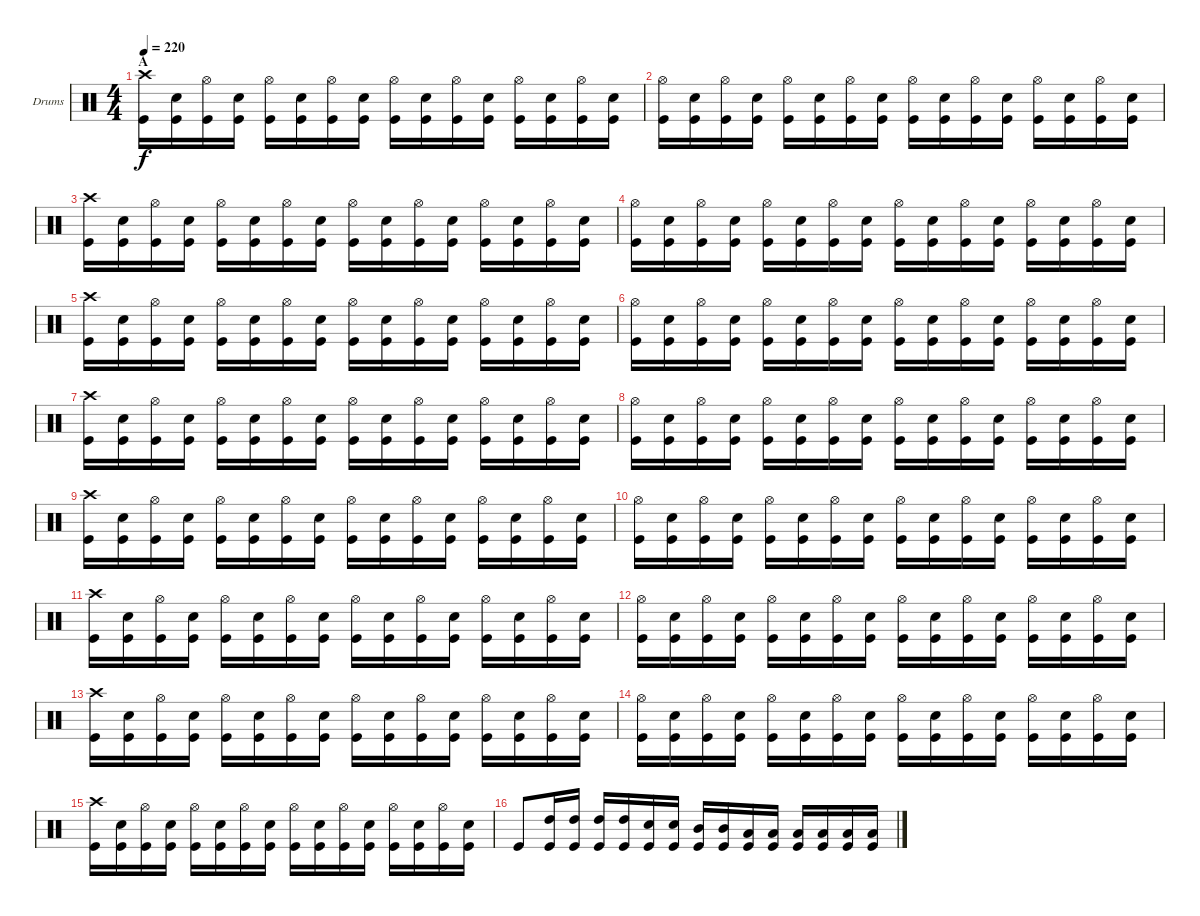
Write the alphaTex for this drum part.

\bracketExtendMode groupsimilarinstruments
\firstSystemTrackNameOrientation horizontal
\otherSystemsTrackNameOrientation horizontal
\track ("Drumkit" "Drums") {instrument percussion}
\staff {score}
\articulation defaults
\ts (4 4)
\section ("" "A")
\tempo 220
\clef neutral
\scale
0.54159
\ks c
("Kick (hit)" "Crash high (hit)").16{dy f} ("Snare (hit) 2" "Kick (hit)").16 ("Kick (hit)" "Hi-Hat (open)").16 ("Snare (hit) 2" "Kick (hit)").16 ("Kick (hit)" "Hi-Hat (open)").16 ("Snare (hit) 2" "Kick (hit)").16 ("Kick (hit)" "Hi-Hat (open)").16 ("Snare (hit) 2" "Kick (hit)").16 ("Kick (hit)" "Hi-Hat (open)").16 ("Snare (hit) 2" "Kick (hit)").16 ("Kick (hit)" "Hi-Hat (open)").16 ("Snare (hit) 2" "Kick (hit)").16 ("Kick (hit)" "Hi-Hat (open)").16 ("Snare (hit) 2" "Kick (hit)").16 ("Kick (hit)" "Hi-Hat (open)").16 ("Snare (hit) 2" "Kick (hit)").16 |
\scale
0.45841 ("Kick (hit)" "Hi-Hat (open)").16 ("Snare (hit) 2" "Kick (hit)").16 ("Kick (hit)" "Hi-Hat (open)").16 ("Snare (hit) 2" "Kick (hit)").16 ("Kick (hit)" "Hi-Hat (open)").16 ("Snare (hit) 2" "Kick (hit)").16 ("Kick (hit)" "Hi-Hat (open)").16 ("Snare (hit) 2" "Kick (hit)").16 ("Kick (hit)" "Hi-Hat (open)").16 ("Snare (hit) 2" "Kick (hit)").16 ("Kick (hit)" "Hi-Hat (open)").16 ("Snare (hit) 2" "Kick (hit)").16 ("Kick (hit)" "Hi-Hat (open)").16 ("Snare (hit) 2" "Kick (hit)").16 ("Kick (hit)" "Hi-Hat (open)").16 ("Snare (hit) 2" "Kick (hit)").16 |
\scale
0.5 ("Kick (hit)" "Crash high (hit)").16 ("Snare (hit) 2" "Kick (hit)").16 ("Kick (hit)" "Hi-Hat (open)").16 ("Snare (hit) 2" "Kick (hit)").16 ("Kick (hit)" "Hi-Hat (open)").16 ("Snare (hit) 2" "Kick (hit)").16 ("Kick (hit)" "Hi-Hat (open)").16 ("Snare (hit) 2" "Kick (hit)").16 ("Kick (hit)" "Hi-Hat (open)").16 ("Snare (hit) 2" "Kick (hit)").16 ("Kick (hit)" "Hi-Hat (open)").16 ("Snare (hit) 2" "Kick (hit)").16 ("Kick (hit)" "Hi-Hat (open)").16 ("Snare (hit) 2" "Kick (hit)").16 ("Kick (hit)" "Hi-Hat (open)").16 ("Snare (hit) 2" "Kick (hit)").16 |
\scale
0.5 ("Kick (hit)" "Hi-Hat (open)").16 ("Snare (hit) 2" "Kick (hit)").16 ("Kick (hit)" "Hi-Hat (open)").16 ("Snare (hit) 2" "Kick (hit)").16 ("Kick (hit)" "Hi-Hat (open)").16 ("Snare (hit) 2" "Kick (hit)").16 ("Kick (hit)" "Hi-Hat (open)").16 ("Snare (hit) 2" "Kick (hit)").16 ("Kick (hit)" "Hi-Hat (open)").16 ("Snare (hit) 2" "Kick (hit)").16 ("Kick (hit)" "Hi-Hat (open)").16 ("Snare (hit) 2" "Kick (hit)").16 ("Kick (hit)" "Hi-Hat (open)").16 ("Snare (hit) 2" "Kick (hit)").16 ("Kick (hit)" "Hi-Hat (open)").16 ("Snare (hit) 2" "Kick (hit)").16 |
\scale
0.5 ("Kick (hit)" "Crash high (hit)").16 ("Snare (hit) 2" "Kick (hit)").16 ("Kick (hit)" "Hi-Hat (open)").16 ("Snare (hit) 2" "Kick (hit)").16 ("Kick (hit)" "Hi-Hat (open)").16 ("Snare (hit) 2" "Kick (hit)").16 ("Kick (hit)" "Hi-Hat (open)").16 ("Snare (hit) 2" "Kick (hit)").16 ("Kick (hit)" "Hi-Hat (open)").16 ("Snare (hit) 2" "Kick (hit)").16 ("Kick (hit)" "Hi-Hat (open)").16 ("Snare (hit) 2" "Kick (hit)").16 ("Kick (hit)" "Hi-Hat (open)").16 ("Snare (hit) 2" "Kick (hit)").16 ("Kick (hit)" "Hi-Hat (open)").16 ("Snare (hit) 2" "Kick (hit)").16 |
\scale
0.5 ("Kick (hit)" "Hi-Hat (open)").16 ("Snare (hit) 2" "Kick (hit)").16 ("Kick (hit)" "Hi-Hat (open)").16 ("Snare (hit) 2" "Kick (hit)").16 ("Kick (hit)" "Hi-Hat (open)").16 ("Snare (hit) 2" "Kick (hit)").16 ("Kick (hit)" "Hi-Hat (open)").16 ("Snare (hit) 2" "Kick (hit)").16 ("Kick (hit)" "Hi-Hat (open)").16 ("Snare (hit) 2" "Kick (hit)").16 ("Kick (hit)" "Hi-Hat (open)").16 ("Snare (hit) 2" "Kick (hit)").16 ("Kick (hit)" "Hi-Hat (open)").16 ("Snare (hit) 2" "Kick (hit)").16 ("Kick (hit)" "Hi-Hat (open)").16 ("Snare (hit) 2" "Kick (hit)").16 |
\scale
0.5 ("Kick (hit)" "Crash high (hit)").16 ("Snare (hit) 2" "Kick (hit)").16 ("Kick (hit)" "Hi-Hat (open)").16 ("Snare (hit) 2" "Kick (hit)").16 ("Kick (hit)" "Hi-Hat (open)").16 ("Snare (hit) 2" "Kick (hit)").16 ("Kick (hit)" "Hi-Hat (open)").16 ("Snare (hit) 2" "Kick (hit)").16 ("Kick (hit)" "Hi-Hat (open)").16 ("Snare (hit) 2" "Kick (hit)").16 ("Kick (hit)" "Hi-Hat (open)").16 ("Snare (hit) 2" "Kick (hit)").16 ("Kick (hit)" "Hi-Hat (open)").16 ("Snare (hit) 2" "Kick (hit)").16 ("Kick (hit)" "Hi-Hat (open)").16 ("Snare (hit) 2" "Kick (hit)").16 |
\scale
0.5 ("Kick (hit)" "Hi-Hat (open)").16 ("Snare (hit) 2" "Kick (hit)").16 ("Kick (hit)" "Hi-Hat (open)").16 ("Snare (hit) 2" "Kick (hit)").16 ("Kick (hit)" "Hi-Hat (open)").16 ("Snare (hit) 2" "Kick (hit)").16 ("Kick (hit)" "Hi-Hat (open)").16 ("Snare (hit) 2" "Kick (hit)").16 ("Kick (hit)" "Hi-Hat (open)").16 ("Snare (hit) 2" "Kick (hit)").16 ("Kick (hit)" "Hi-Hat (open)").16 ("Snare (hit) 2" "Kick (hit)").16 ("Kick (hit)" "Hi-Hat (open)").16 ("Snare (hit) 2" "Kick (hit)").16 ("Kick (hit)" "Hi-Hat (open)").16 ("Snare (hit) 2" "Kick (hit)").16 |
\scale
0.5 ("Kick (hit)" "Crash high (hit)").16 ("Snare (hit) 2" "Kick (hit)").16 ("Kick (hit)" "Hi-Hat (open)").16 ("Snare (hit) 2" "Kick (hit)").16 ("Kick (hit)" "Hi-Hat (open)").16 ("Snare (hit) 2" "Kick (hit)").16 ("Kick (hit)" "Hi-Hat (open)").16 ("Snare (hit) 2" "Kick (hit)").16 ("Kick (hit)" "Hi-Hat (open)").16 ("Snare (hit) 2" "Kick (hit)").16 ("Kick (hit)" "Hi-Hat (open)").16 ("Snare (hit) 2" "Kick (hit)").16 ("Kick (hit)" "Hi-Hat (open)").16 ("Snare (hit) 2" "Kick (hit)").16 ("Kick (hit)" "Hi-Hat (open)").16 ("Snare (hit) 2" "Kick (hit)").16 |
\scale
0.5 ("Kick (hit)" "Hi-Hat (open)").16 ("Snare (hit) 2" "Kick (hit)").16 ("Kick (hit)" "Hi-Hat (open)").16 ("Snare (hit) 2" "Kick (hit)").16 ("Kick (hit)" "Hi-Hat (open)").16 ("Snare (hit) 2" "Kick (hit)").16 ("Kick (hit)" "Hi-Hat (open)").16 ("Snare (hit) 2" "Kick (hit)").16 ("Kick (hit)" "Hi-Hat (open)").16 ("Snare (hit) 2" "Kick (hit)").16 ("Kick (hit)" "Hi-Hat (open)").16 ("Snare (hit) 2" "Kick (hit)").16 ("Kick (hit)" "Hi-Hat (open)").16 ("Snare (hit) 2" "Kick (hit)").16 ("Kick (hit)" "Hi-Hat (open)").16 ("Snare (hit) 2" "Kick (hit)").16 |
\scale
0.5 ("Kick (hit)" "Crash high (hit)").16 ("Snare (hit) 2" "Kick (hit)").16 ("Kick (hit)" "Hi-Hat (open)").16 ("Snare (hit) 2" "Kick (hit)").16 ("Kick (hit)" "Hi-Hat (open)").16 ("Snare (hit) 2" "Kick (hit)").16 ("Kick (hit)" "Hi-Hat (open)").16 ("Snare (hit) 2" "Kick (hit)").16 ("Kick (hit)" "Hi-Hat (open)").16 ("Snare (hit) 2" "Kick (hit)").16 ("Kick (hit)" "Hi-Hat (open)").16 ("Snare (hit) 2" "Kick (hit)").16 ("Kick (hit)" "Hi-Hat (open)").16 ("Snare (hit) 2" "Kick (hit)").16 ("Kick (hit)" "Hi-Hat (open)").16 ("Snare (hit) 2" "Kick (hit)").16 |
\scale
0.5 ("Kick (hit)" "Hi-Hat (open)").16 ("Snare (hit) 2" "Kick (hit)").16 ("Kick (hit)" "Hi-Hat (open)").16 ("Snare (hit) 2" "Kick (hit)").16 ("Kick (hit)" "Hi-Hat (open)").16 ("Snare (hit) 2" "Kick (hit)").16 ("Kick (hit)" "Hi-Hat (open)").16 ("Snare (hit) 2" "Kick (hit)").16 ("Kick (hit)" "Hi-Hat (open)").16 ("Snare (hit) 2" "Kick (hit)").16 ("Kick (hit)" "Hi-Hat (open)").16 ("Snare (hit) 2" "Kick (hit)").16 ("Kick (hit)" "Hi-Hat (open)").16 ("Snare (hit) 2" "Kick (hit)").16 ("Kick (hit)" "Hi-Hat (open)").16 ("Snare (hit) 2" "Kick (hit)").16 |
\scale
0.5 ("Kick (hit)" "Crash high (hit)").16 ("Snare (hit) 2" "Kick (hit)").16 ("Kick (hit)" "Hi-Hat (open)").16 ("Snare (hit) 2" "Kick (hit)").16 ("Kick (hit)" "Hi-Hat (open)").16 ("Snare (hit) 2" "Kick (hit)").16 ("Kick (hit)" "Hi-Hat (open)").16 ("Snare (hit) 2" "Kick (hit)").16 ("Kick (hit)" "Hi-Hat (open)").16 ("Snare (hit) 2" "Kick (hit)").16 ("Kick (hit)" "Hi-Hat (open)").16 ("Snare (hit) 2" "Kick (hit)").16 ("Kick (hit)" "Hi-Hat (open)").16 ("Snare (hit) 2" "Kick (hit)").16 ("Kick (hit)" "Hi-Hat (open)").16 ("Snare (hit) 2" "Kick (hit)").16 |
\scale
0.5 ("Kick (hit)" "Hi-Hat (open)").16 ("Snare (hit) 2" "Kick (hit)").16 ("Kick (hit)" "Hi-Hat (open)").16 ("Snare (hit) 2" "Kick (hit)").16 ("Kick (hit)" "Hi-Hat (open)").16 ("Snare (hit) 2" "Kick (hit)").16 ("Kick (hit)" "Hi-Hat (open)").16 ("Snare (hit) 2" "Kick (hit)").16 ("Kick (hit)" "Hi-Hat (open)").16 ("Snare (hit) 2" "Kick (hit)").16 ("Kick (hit)" "Hi-Hat (open)").16 ("Snare (hit) 2" "Kick (hit)").16 ("Kick (hit)" "Hi-Hat (open)").16 ("Snare (hit) 2" "Kick (hit)").16 ("Kick (hit)" "Hi-Hat (open)").16 ("Snare (hit) 2" "Kick (hit)").16 |
\scale
0.50924 ("Kick (hit)" "Crash high (hit)").16 ("Snare (hit) 2" "Kick (hit)").16 ("Kick (hit)" "Hi-Hat (open)").16 ("Snare (hit) 2" "Kick (hit)").16 ("Kick (hit)" "Hi-Hat (open)").16 ("Snare (hit) 2" "Kick (hit)").16 ("Kick (hit)" "Hi-Hat (open)").16 ("Snare (hit) 2" "Kick (hit)").16 ("Kick (hit)" "Hi-Hat (open)").16 ("Snare (hit) 2" "Kick (hit)").16 ("Kick (hit)" "Hi-Hat (open)").16 ("Snare (hit) 2" "Kick (hit)").16 ("Kick (hit)" "Hi-Hat (open)").16 ("Snare (hit) 2" "Kick (hit)").16 ("Kick (hit)" "Hi-Hat (open)").16 ("Snare (hit) 2" "Kick (hit)").16 |
\scale
0.49076 "Kick (hit)".8 ("High Tom (hit)" "Kick (hit)").16 ("High Tom (hit)" "Kick (hit)").16 ("High Tom (hit)" "Kick (hit)").16 ("High Tom (hit)" "Kick (hit)").16 ("Kick (hit)" "Snare (hit) 2").16 ("Kick (hit)" "Snare (hit) 2").16 ("Mid Tom (hit)" "Kick (hit)").16 ("Mid Tom (hit)" "Kick (hit)").16 ("Kick (hit)" "Low Tom (hit)").16 ("Kick (hit)" "Low Tom (hit)").16 ("Kick (hit)" "Low Tom (hit)").16 ("Kick (hit)" "Low Tom (hit)").16 ("Kick (hit)" "Low Tom (hit)").16 ("Kick (hit)" "Low Tom (hit)").16
